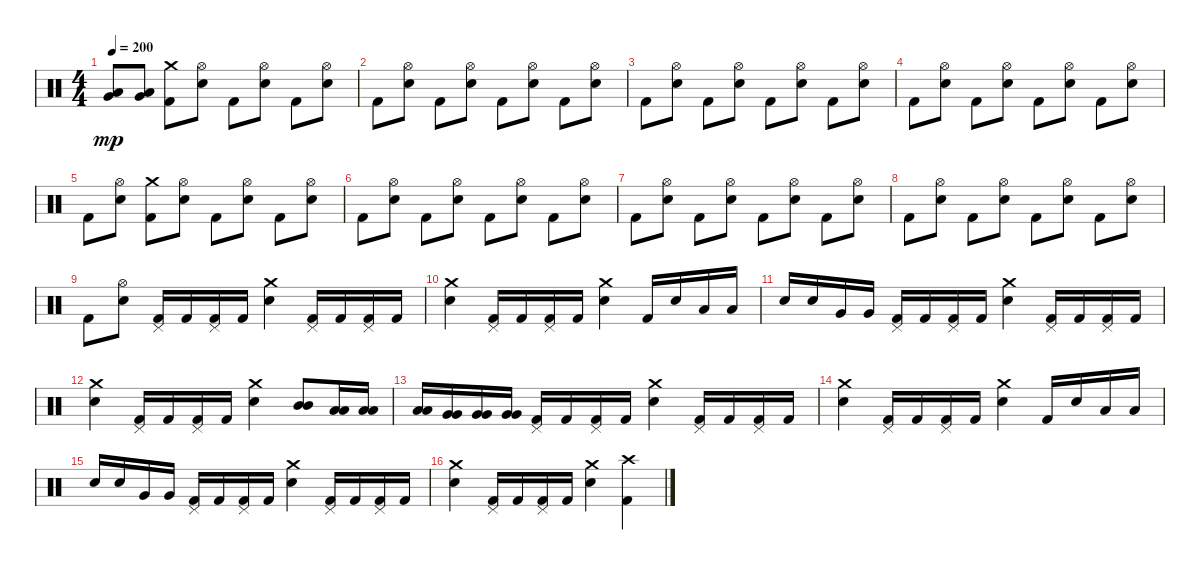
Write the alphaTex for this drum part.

\track "" {instrument percussion}
\staff {score}
\articulation defaults
\ts (4 4)
\tempo 200
\clef neutral
\ks c
("Very Low Tom (hit)" "Low Tom (hit)").8{dy mp} ("Very Low Tom (hit)" "Low Tom (hit)").8 ("Kick (hit) 2" "Crash medium (hit)").8 ("Electric Snare (hit)" "Hi-Hat (open)").8 "Kick (hit) 2".8 ("Electric Snare (hit)" "Hi-Hat (open)").8 "Kick (hit) 2".8 ("Electric Snare (hit)" "Hi-Hat (open)").8 |
"Kick (hit) 2".8 ("Electric Snare (hit)" "Hi-Hat (open)").8 "Kick (hit) 2".8 ("Electric Snare (hit)" "Hi-Hat (open)").8 "Kick (hit) 2".8 ("Electric Snare (hit)" "Hi-Hat (open)").8 "Kick (hit) 2".8 ("Electric Snare (hit)" "Hi-Hat (open)").8 |
"Kick (hit) 2".8 ("Electric Snare (hit)" "Hi-Hat (open)").8 "Kick (hit) 2".8 ("Electric Snare (hit)" "Hi-Hat (open)").8 "Kick (hit) 2".8 ("Electric Snare (hit)" "Hi-Hat (open)").8 "Kick (hit) 2".8 ("Electric Snare (hit)" "Hi-Hat (open)").8 |
"Kick (hit) 2".8 ("Electric Snare (hit)" "Hi-Hat (open)").8 "Kick (hit) 2".8 ("Electric Snare (hit)" "Hi-Hat (open)").8 "Kick (hit) 2".8 ("Electric Snare (hit)" "Hi-Hat (open)").8 "Kick (hit) 2".8 ("Electric Snare (hit)" "Hi-Hat (open)").8 |
"Kick (hit) 2".8 ("Electric Snare (hit)" "Hi-Hat (open)").8 ("Kick (hit) 2" "Crash medium (hit)").8 ("Electric Snare (hit)" "Hi-Hat (open)").8 "Kick (hit) 2".8 ("Electric Snare (hit)" "Hi-Hat (open)").8 "Kick (hit) 2".8 ("Electric Snare (hit)" "Hi-Hat (open)").8 |
"Kick (hit) 2".8 ("Electric Snare (hit)" "Hi-Hat (open)").8 "Kick (hit) 2".8 ("Electric Snare (hit)" "Hi-Hat (open)").8 "Kick (hit) 2".8 ("Electric Snare (hit)" "Hi-Hat (open)").8 "Kick (hit) 2".8 ("Electric Snare (hit)" "Hi-Hat (open)").8 |
"Kick (hit) 2".8 ("Electric Snare (hit)" "Hi-Hat (open)").8 "Kick (hit) 2".8 ("Electric Snare (hit)" "Hi-Hat (open)").8 "Kick (hit) 2".8 ("Electric Snare (hit)" "Hi-Hat (open)").8 "Kick (hit) 2".8 ("Electric Snare (hit)" "Hi-Hat (open)").8 |
"Kick (hit) 2".8 ("Electric Snare (hit)" "Hi-Hat (open)").8 "Kick (hit) 2".8 ("Electric Snare (hit)" "Hi-Hat (open)").8 "Kick (hit) 2".8 ("Electric Snare (hit)" "Hi-Hat (open)").8 "Kick (hit) 2".8 ("Electric Snare (hit)" "Hi-Hat (open)").8 |
"Kick (hit) 2".8 ("Electric Snare (hit)" "Hi-Hat (open)").8 ("Kick (hit) 2" "Pedal Hi-Hat (hit)").16 "Kick (hit) 2".16 ("Kick (hit) 2" "Pedal Hi-Hat (hit)").16 "Kick (hit) 2".16 ("Electric Snare (hit)" "Crash medium (hit)").4 ("Kick (hit) 2" "Pedal Hi-Hat (hit)").16 "Kick (hit) 2".16 ("Kick (hit) 2" "Pedal Hi-Hat (hit)").16 "Kick (hit) 2".16 |
("Electric Snare (hit)" "Crash medium (hit)").4 ("Kick (hit) 2" "Pedal Hi-Hat (hit)").16 "Kick (hit) 2".16 ("Kick (hit) 2" "Pedal Hi-Hat (hit)").16 "Kick (hit) 2".16 ("Electric Snare (hit)" "Crash medium (hit)").4 "Kick (hit) 2".16 "Electric Snare (hit)".16 "Low Tom (hit)".16 "Low Tom (hit)".16 |
"Electric Snare (hit)".16 "Electric Snare (hit)".16 "Very Low Tom (hit)".16 "Very Low Tom (hit)".16 ("Kick (hit) 2" "Pedal Hi-Hat (hit)").16 "Kick (hit) 2".16 ("Kick (hit) 2" "Pedal Hi-Hat (hit)").16 "Kick (hit) 2".16 ("Electric Snare (hit)" "Crash medium (hit)").4 ("Kick (hit) 2" "Pedal Hi-Hat (hit)").16 "Kick (hit) 2".16 ("Kick (hit) 2" "Pedal Hi-Hat (hit)").16 "Kick (hit) 2".16 |
("Electric Snare (hit)" "Crash medium (hit)").4 ("Kick (hit) 2" "Pedal Hi-Hat (hit)").16 "Kick (hit) 2".16 ("Kick (hit) 2" "Pedal Hi-Hat (hit)").16 "Kick (hit) 2".16 ("Electric Snare (hit)" "Crash medium (hit)").4 ("Mid Tom (hit)" "Mid Tom (hit)").8 ("Low Tom (hit)" "Low Tom (hit)").16 ("Low Tom (hit)" "Low Tom (hit)").16 |
("Low Tom (hit)" "Low Tom (hit)").16 ("Very Low Tom (hit)" "Very Low Tom (hit)").16 ("Very Low Tom (hit)" "Very Low Tom (hit)").16 ("Very Low Tom (hit)" "Very Low Tom (hit)").16 ("Kick (hit) 2" "Pedal Hi-Hat (hit)").16 "Kick (hit) 2".16 ("Kick (hit) 2" "Pedal Hi-Hat (hit)").16 "Kick (hit) 2".16 ("Electric Snare (hit)" "Crash medium (hit)").4 ("Kick (hit) 2" "Pedal Hi-Hat (hit)").16 "Kick (hit) 2".16 ("Kick (hit) 2" "Pedal Hi-Hat (hit)").16 "Kick (hit) 2".16 |
("Electric Snare (hit)" "Crash medium (hit)").4 ("Kick (hit) 2" "Pedal Hi-Hat (hit)").16 "Kick (hit) 2".16 ("Kick (hit) 2" "Pedal Hi-Hat (hit)").16 "Kick (hit) 2".16 ("Electric Snare (hit)" "Crash medium (hit)").4 "Kick (hit) 2".16 "Electric Snare (hit)".16 "Low Tom (hit)".16 "Low Tom (hit)".16 |
"Electric Snare (hit)".16 "Electric Snare (hit)".16 "Very Low Tom (hit)".16 "Very Low Tom (hit)".16 ("Kick (hit) 2" "Pedal Hi-Hat (hit)").16 "Kick (hit) 2".16 ("Kick (hit) 2" "Pedal Hi-Hat (hit)").16 "Kick (hit) 2".16 ("Electric Snare (hit)" "Crash medium (hit)").4 ("Kick (hit) 2" "Pedal Hi-Hat (hit)").16 "Kick (hit) 2".16 ("Kick (hit) 2" "Pedal Hi-Hat (hit)").16 "Kick (hit) 2".16 |
("Electric Snare (hit)" "Crash medium (hit)").4 ("Kick (hit) 2" "Pedal Hi-Hat (hit)").16 "Kick (hit) 2".16 ("Kick (hit) 2" "Pedal Hi-Hat (hit)").16 "Kick (hit) 2".16 ("Electric Snare (hit)" "Crash medium (hit)").4 ("Kick (hit) 2" "Crash high (hit)").4
